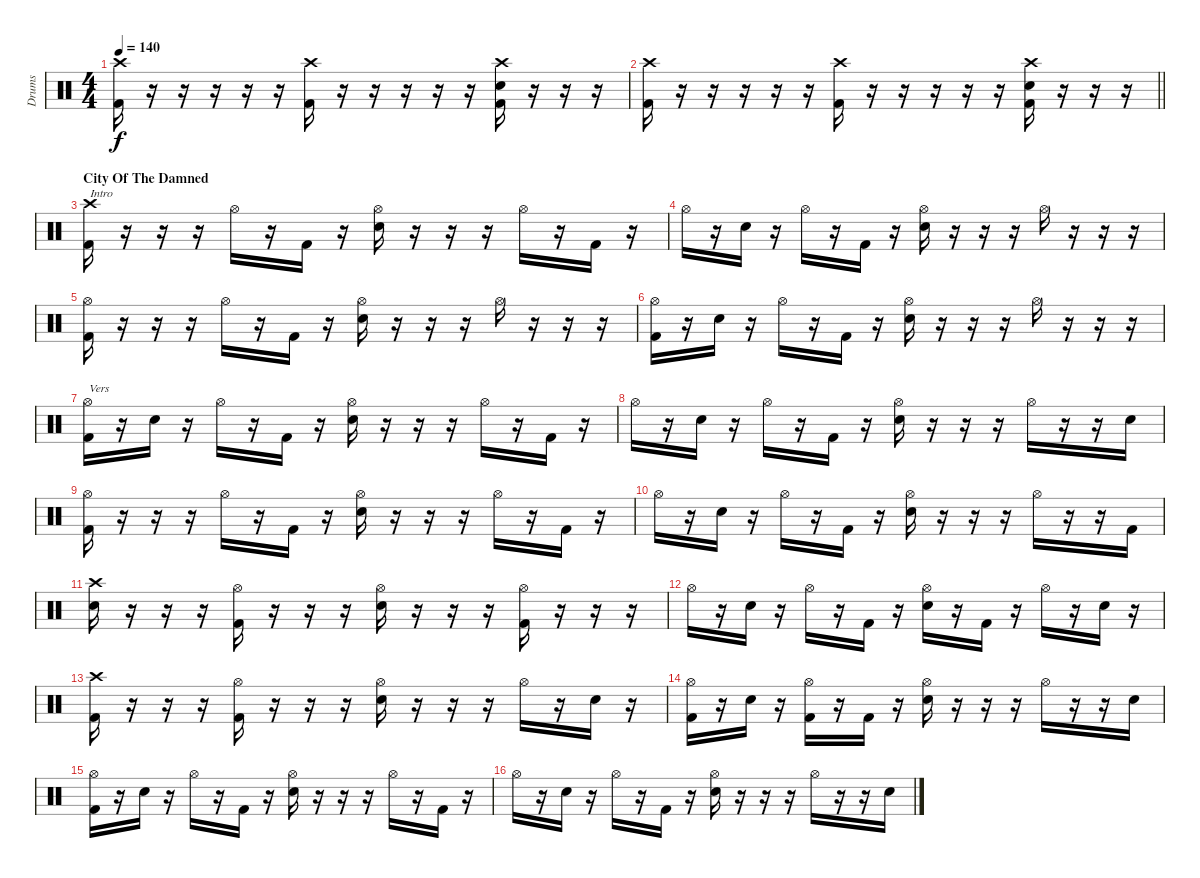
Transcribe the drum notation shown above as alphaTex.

\track ("Drums" "Drums") {instrument percussion}
\staff {score}
\articulation defaults
\ts (4 4)
\tempo 140
\clef neutral
\ks c
("Crash high (hit)" "Kick (hit) 2").16{dy f} r.16 r.16 r.16 r.16 r.16 ("Crash high (hit)" "Kick (hit) 2").16 r.16 r.16 r.16 r.16 r.16 ("Crash high (hit)" "Snare (hit) 2" "Kick (hit) 2").16 r.16 r.16 r.16 |
\barLineRight lightlight
("Crash high (hit)" "Kick (hit) 2").16 r.16 r.16 r.16 r.16 r.16 ("Crash high (hit)" "Kick (hit) 2").16 r.16 r.16 r.16 r.16 r.16 ("Crash high (hit)" "Snare (hit) 2" "Kick (hit) 2").16 r.16 r.16 r.16 |
\section ("" "City Of The Damned")
("Crash high (hit)" "Kick (hit) 2").16{txt "Intro"} r.16 r.16 r.16 "Hi-Hat (open)".16 r.16 "Kick (hit) 2".16 r.16 ("Hi-Hat (open)" "Snare (hit) 2").16 r.16 r.16 r.16 "Hi-Hat (open)".16 r.16 "Kick (hit) 2".16 r.16 |
"Hi-Hat (open)".16 r.16 "Snare (hit) 2".16 r.16 "Hi-Hat (open)".16 r.16 "Kick (hit) 2".16 r.16 ("Hi-Hat (open)" "Snare (hit) 2").16 r.16 r.16 r.16 "Hi-Hat (open)".16 r.16 r.16 r.16 |
("Hi-Hat (open)" "Kick (hit) 2").16 r.16 r.16 r.16 "Hi-Hat (open)".16 r.16 "Kick (hit) 2".16 r.16 ("Hi-Hat (open)" "Snare (hit) 2").16 r.16 r.16 r.16 "Hi-Hat (open)".16 r.16 r.16 r.16 |
("Hi-Hat (open)" "Kick (hit) 2").16 r.16 "Snare (hit) 2".16 r.16 "Hi-Hat (open)".16 r.16 "Kick (hit) 2".16 r.16 ("Hi-Hat (open)" "Snare (hit) 2").16 r.16 r.16 r.16 "Hi-Hat (open)".16 r.16 r.16 r.16 |
("Hi-Hat (open)" "Kick (hit) 2").16{txt "Vers"} r.16 "Snare (hit) 2".16 r.16 "Hi-Hat (open)".16 r.16 "Kick (hit) 2".16 r.16 ("Hi-Hat (open)" "Snare (hit) 2").16 r.16 r.16 r.16 "Hi-Hat (open)".16 r.16 "Kick (hit) 2".16 r.16 |
"Hi-Hat (open)".16 r.16 "Snare (hit) 2".16 r.16 "Hi-Hat (open)".16 r.16 "Kick (hit) 2".16 r.16 ("Hi-Hat (open)" "Snare (hit) 2").16 r.16 r.16 r.16 "Hi-Hat (open)".16 r.16 r.16 "Snare (hit) 2".16 |
("Hi-Hat (open)" "Kick (hit) 2").16 r.16 r.16 r.16 "Hi-Hat (open)".16 r.16 "Kick (hit) 2".16 r.16 ("Hi-Hat (open)" "Snare (hit) 2").16 r.16 r.16 r.16 "Hi-Hat (open)".16 r.16 "Kick (hit) 2".16 r.16 |
"Hi-Hat (open)".16 r.16 "Snare (hit) 2".16 r.16 "Hi-Hat (open)".16 r.16 "Kick (hit) 2".16 r.16 ("Hi-Hat (open)" "Snare (hit) 2").16 r.16 r.16 r.16 "Hi-Hat (open)".16 r.16 r.16 "Kick (hit) 2".16 |
("Crash high (hit)" "Snare (hit) 2").16 r.16 r.16 r.16 ("Hi-Hat (open)" "Kick (hit) 2").16 r.16 r.16 r.16 ("Hi-Hat (open)" "Snare (hit) 2").16 r.16 r.16 r.16 ("Hi-Hat (open)" "Kick (hit) 2").16 r.16 r.16 r.16 |
"Hi-Hat (open)".16 r.16 "Snare (hit) 2".16 r.16 "Hi-Hat (open)".16 r.16 "Kick (hit) 2".16 r.16 ("Hi-Hat (open)" "Snare (hit) 2").16 r.16 "Kick (hit) 2".16 r.16 "Hi-Hat (open)".16 r.16 "Snare (hit) 2".16 r.16 |
("Crash high (hit)" "Kick (hit) 2").16 r.16 r.16 r.16 ("Hi-Hat (open)" "Kick (hit) 2").16 r.16 r.16 r.16 ("Hi-Hat (open)" "Snare (hit) 2").16 r.16 r.16 r.16 "Hi-Hat (open)".16 r.16 "Snare (hit) 2".16 r.16 |
("Hi-Hat (open)" "Kick (hit) 2").16 r.16 "Snare (hit) 2".16 r.16 ("Hi-Hat (open)" "Kick (hit) 2").16 r.16 "Kick (hit) 2".16 r.16 ("Hi-Hat (open)" "Snare (hit) 2").16 r.16 r.16 r.16 "Hi-Hat (open)".16 r.16 r.16 "Snare (hit) 2".16 |
("Hi-Hat (open)" "Kick (hit) 2").16 r.16 "Snare (hit) 2".16 r.16 "Hi-Hat (open)".16 r.16 "Kick (hit) 2".16 r.16 ("Hi-Hat (open)" "Snare (hit) 2").16 r.16 r.16 r.16 "Hi-Hat (open)".16 r.16 "Kick (hit) 2".16 r.16 |
"Hi-Hat (open)".16 r.16 "Snare (hit) 2".16 r.16 "Hi-Hat (open)".16 r.16 "Kick (hit) 2".16 r.16 ("Hi-Hat (open)" "Snare (hit) 2").16 r.16 r.16 r.16 "Hi-Hat (open)".16 r.16 r.16 "Snare (hit) 2".16
